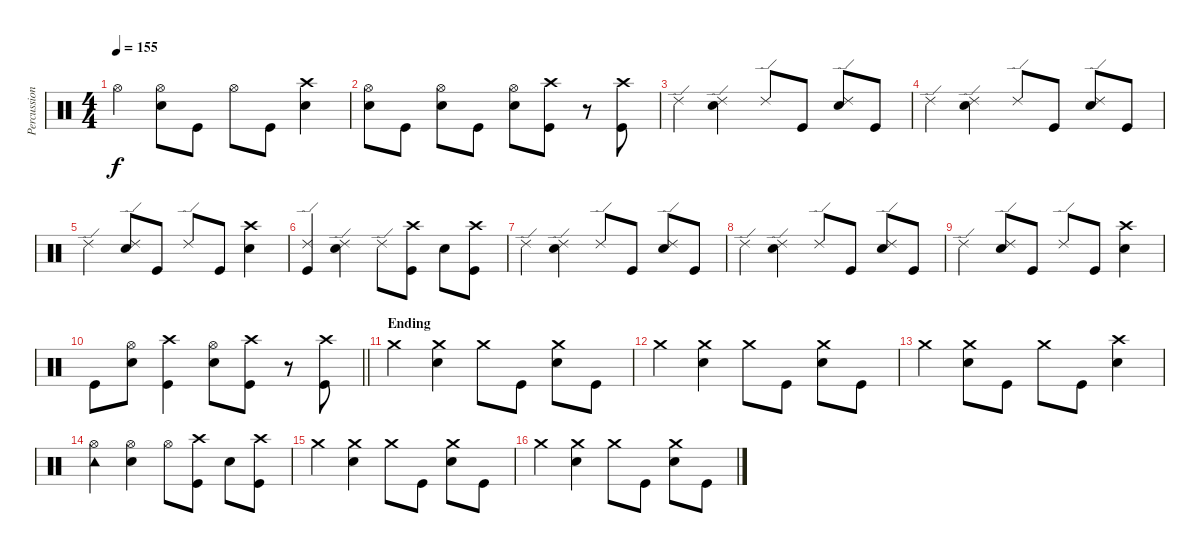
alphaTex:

\track ("Percussion" "Percussion") {instrument percussion}
\staff {score}
\articulation defaults
\ts (4 4)
\tempo 155
\clef neutral
\ks c "Hi-Hat (open)".4{dy f}
("Hi-Hat (open)" "Snare (hit) 2").8 "Kick (hit)".8 "Hi-Hat (open)".8 "Kick (hit)".8 ("Crash high (hit)" "Snare (hit) 2").4 |
("Hi-Hat (open)" "Snare (hit) 2").8 "Kick (hit)".8 ("Hi-Hat (open)" "Snare (hit) 2").8 "Kick (hit)".8 ("Hi-Hat (open)" "Snare (hit) 2").8 ("Crash high (hit)" "Kick (hit)").8 r.8 ("Crash high (hit)" "Kick (hit)").8 |
"Ride (edge) 2".4 ("Ride (edge) 2" "Snare (hit) 2").4 "Ride (edge) 2".8 "Kick (hit)".8 ("Ride (edge) 2" "Snare (hit) 2").8 "Kick (hit)".8 |
"Ride (edge) 2".4 ("Ride (edge) 2" "Snare (hit) 2").4 "Ride (edge) 2".8 "Kick (hit)".8 ("Ride (edge) 2" "Snare (hit) 2").8 "Kick (hit)".8 |
"Ride (edge) 2".4 ("Ride (edge) 2" "Snare (hit) 2").8 "Kick (hit)".8 "Ride (edge) 2".8 "Kick (hit)".8 ("Crash high (hit)" "Snare (hit) 2").4 |
("Ride (edge) 2" "Kick (hit)").4 ("Ride (edge) 2" "Snare (hit) 2").4 "Ride (edge) 2".8 ("Crash high (hit)" "Kick (hit)").8 "Snare (hit) 2".8 ("Crash high (hit)" "Kick (hit)").8 |
"Ride (edge) 2".4 ("Ride (edge) 2" "Snare (hit) 2").4 "Ride (edge) 2".8 "Kick (hit)".8 ("Ride (edge) 2" "Snare (hit) 2").8 "Kick (hit)".8 |
"Ride (edge) 2".4 ("Ride (edge) 2" "Snare (hit) 2").4 "Ride (edge) 2".8 "Kick (hit)".8 ("Ride (edge) 2" "Snare (hit) 2").8 "Kick (hit)".8 |
"Ride (edge) 2".4 ("Ride (edge) 2" "Snare (hit) 2").8 "Kick (hit)".8 "Ride (edge) 2".8 "Kick (hit)".8 ("Crash high (hit)" "Snare (hit) 2").4 |
\barLineRight lightlight "Kick (hit)".8
("Hi-Hat (open)" "Snare (hit) 2").8 ("Crash high (hit)" "Kick (hit)").4 ("Hi-Hat (open)" "Snare (hit) 2").8 ("Crash high (hit)" "Kick (hit)").8 r.8 ("Crash high (hit)" "Kick (hit)").8 |
\section ("" "Ending")
"Crash medium (hit)".4 ("Crash medium (hit)" "Snare (hit) 2").4 "Crash medium (hit)".8 "Kick (hit)".8 ("Crash medium (hit)" "Snare (hit) 2").8 "Kick (hit)".8 |
"Crash medium (hit)".4 ("Crash medium (hit)" "Snare (hit) 2").4 "Crash medium (hit)".8 "Kick (hit)".8 ("Crash medium (hit)" "Snare (hit) 2").8 "Kick (hit)".8 |
"Crash medium (hit)".4 ("Crash medium (hit)" "Snare (hit) 2").8 "Kick (hit)".8 "Crash medium (hit)".8 "Kick (hit)".8 ("Crash high (hit)" "Snare (hit) 2").4 |
("Hi-Hat (open)" "Tambourine (hit)").4 ("Hi-Hat (open)" "Snare (hit) 2").4 "Hi-Hat (open)".8 ("Crash high (hit)" "Kick (hit)").8 "Snare (hit) 2".8 ("Crash high (hit)" "Kick (hit)").8 |
"Crash medium (hit)".4 ("Crash medium (hit)" "Snare (hit) 2").4 "Crash medium (hit)".8 "Kick (hit)".8 ("Crash medium (hit)" "Snare (hit) 2").8 "Kick (hit)".8 |
"Crash medium (hit)".4 ("Crash medium (hit)" "Snare (hit) 2").4 "Crash medium (hit)".8 "Kick (hit)".8 ("Crash medium (hit)" "Snare (hit) 2").8 "Kick (hit)".8
